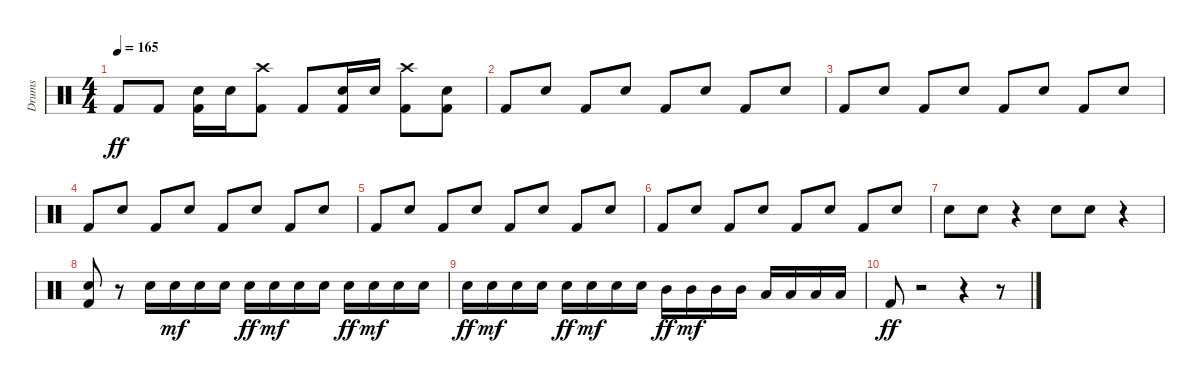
\track ("Drums" "Drums") {instrument percussion}
\staff {score}
\articulation defaults
\ts (4 4)
\tempo 165
\clef neutral
\ks c "Kick (hit) 2".8{dy ff} "Kick (hit) 2".8
("Kick (hit) 2" "Snare (hit) 2").16 "Snare (hit) 2".16 ("Kick (hit) 2" "Crash high (hit)").8 "Kick (hit) 2".8 ("Kick (hit) 2" "Snare (hit) 2").16 "Snare (hit) 2".16 ("Kick (hit) 2" "Crash high (hit)").8 ("Kick (hit) 2" "Snare (hit) 2").8 |
"Kick (hit) 2".8 "Snare (hit) 2".8 "Kick (hit) 2".8 "Snare (hit) 2".8 "Kick (hit) 2".8 "Snare (hit) 2".8 "Kick (hit) 2".8 "Snare (hit) 2".8 |
"Kick (hit) 2".8 "Snare (hit) 2".8 "Kick (hit) 2".8 "Snare (hit) 2".8 "Kick (hit) 2".8 "Snare (hit) 2".8 "Kick (hit) 2".8 "Snare (hit) 2".8 |
"Kick (hit) 2".8 "Snare (hit) 2".8 "Kick (hit) 2".8 "Snare (hit) 2".8 "Kick (hit) 2".8 "Snare (hit) 2".8 "Kick (hit) 2".8 "Snare (hit) 2".8 |
"Kick (hit) 2".8 "Snare (hit) 2".8 "Kick (hit) 2".8 "Snare (hit) 2".8 "Kick (hit) 2".8 "Snare (hit) 2".8 "Kick (hit) 2".8 "Snare (hit) 2".8 |
"Kick (hit) 2".8 "Snare (hit) 2".8 "Kick (hit) 2".8 "Snare (hit) 2".8 "Kick (hit) 2".8 "Snare (hit) 2".8 "Kick (hit) 2".8 "Snare (hit) 2".8 |
"Snare (hit) 2".8 "Snare (hit) 2".8 r.4 "Snare (hit) 2".8 "Snare (hit) 2".8 r.4 |
("Kick (hit) 2" "Snare (hit) 2").8 r.8 "Snare (hit) 2".16 "Snare (hit) 2".16{dy mf} "Snare (hit) 2".16 "Snare (hit) 2".16 "Snare (hit) 2".16{dy ff} "Snare (hit) 2".16{dy mf} "Snare (hit) 2".16 "Snare (hit) 2".16 "Snare (hit) 2".16{dy ff} "Snare (hit) 2".16{dy mf} "Snare (hit) 2".16 "Snare (hit) 2".16 |
"Snare (hit) 2".16{dy ff} "Snare (hit) 2".16{dy mf} "Snare (hit) 2".16 "Snare (hit) 2".16 "Snare (hit) 2".16{dy ff} "Snare (hit) 2".16{dy mf} "Snare (hit) 2".16 "Snare (hit) 2".16 "Mid Tom (hit)".16{dy ff} "Mid Tom (hit)".16{dy mf} "Mid Tom (hit)".16 "Mid Tom (hit)".16 "Low Tom (hit)".16 "Low Tom (hit)".16 "Low Tom (hit)".16 "Low Tom (hit)".16 |
"Kick (hit) 2".8{dy ff} r.2 r.4 r.8
